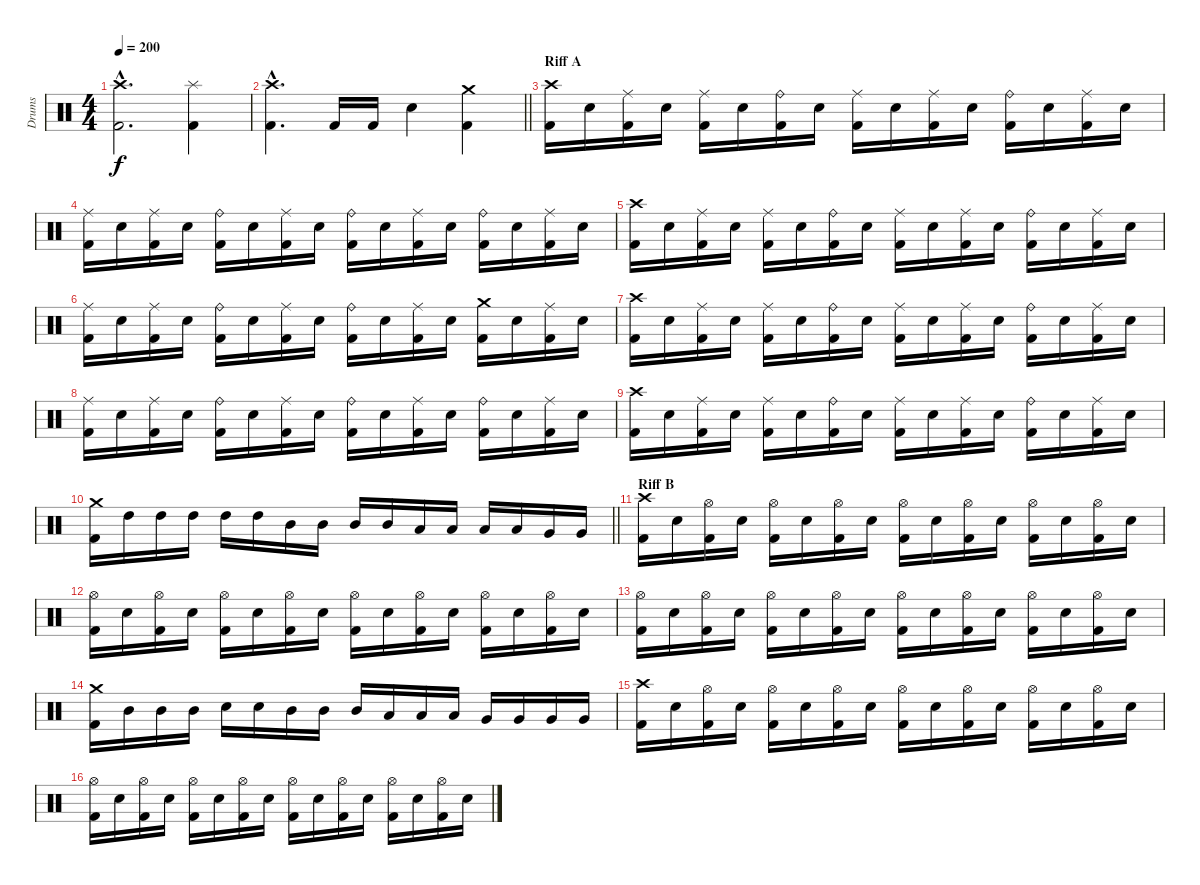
\track ("Drums" "Drums") {instrument percussion}
\staff {score}
\articulation defaults
\ts (4 4)
\tempo 200
\clef neutral
\ks c
("Crash high (hit)"{hac} "Kick (hit) 2"{hac}).2{d dy f} ("Splash (hit)" "Kick (hit) 2").4 |
\barLineRight lightlight
("Crash high (hit)"{hac} "Kick (hit) 2"{hac}).4{d} "Kick (hit) 2".16 "Kick (hit) 2".16 "Electric Snare (hit)".4 ("Crash medium (hit)" "Kick (hit) 2").4 |
\section ("" "Riff A")
("Crash high (hit)" "Kick (hit) 2").16 "Electric Snare (hit)".16 ("Ride (middle)" "Kick (hit) 2").16 "Electric Snare (hit)".16 ("Ride (middle)" "Kick (hit) 2").16 "Electric Snare (hit)".16 ("Ride (bell)" "Kick (hit) 2").16 "Electric Snare (hit)".16 ("Ride (middle)" "Kick (hit) 2").16 "Electric Snare (hit)".16 ("Ride (middle)" "Kick (hit) 2").16 "Electric Snare (hit)".16 ("Ride (bell)" "Kick (hit) 2").16 "Electric Snare (hit)".16 ("Ride (middle)" "Kick (hit) 2").16 "Electric Snare (hit)".16 |
("Ride (middle)" "Kick (hit) 2").16 "Electric Snare (hit)".16 ("Ride (middle)" "Kick (hit) 2").16 "Electric Snare (hit)".16 ("Ride (bell)" "Kick (hit) 2").16 "Electric Snare (hit)".16 ("Ride (middle)" "Kick (hit) 2").16 "Electric Snare (hit)".16 ("Ride (bell)" "Kick (hit) 2").16 "Electric Snare (hit)".16 ("Ride (middle)" "Kick (hit) 2").16 "Electric Snare (hit)".16 ("Ride (bell)" "Kick (hit) 2").16 "Electric Snare (hit)".16 ("Ride (middle)" "Kick (hit) 2").16 "Electric Snare (hit)".16 |
("Crash high (hit)" "Kick (hit) 2").16 "Electric Snare (hit)".16 ("Ride (middle)" "Kick (hit) 2").16 "Electric Snare (hit)".16 ("Ride (middle)" "Kick (hit) 2").16 "Electric Snare (hit)".16 ("Ride (bell)" "Kick (hit) 2").16 "Electric Snare (hit)".16 ("Ride (middle)" "Kick (hit) 2").16 "Electric Snare (hit)".16 ("Ride (middle)" "Kick (hit) 2").16 "Electric Snare (hit)".16 ("Ride (bell)" "Kick (hit) 2").16 "Electric Snare (hit)".16 ("Ride (middle)" "Kick (hit) 2").16 "Electric Snare (hit)".16 |
("Ride (middle)" "Kick (hit) 2").16 "Electric Snare (hit)".16 ("Ride (middle)" "Kick (hit) 2").16 "Electric Snare (hit)".16 ("Ride (bell)" "Kick (hit) 2").16 "Electric Snare (hit)".16 ("Ride (middle)" "Kick (hit) 2").16 "Electric Snare (hit)".16 ("Ride (bell)" "Kick (hit) 2").16 "Electric Snare (hit)".16 ("Ride (middle)" "Kick (hit) 2").16 "Electric Snare (hit)".16 ("Crash medium (hit)" "Kick (hit) 2").16 "Electric Snare (hit)".16 ("Ride (middle)" "Kick (hit) 2").16 "Electric Snare (hit)".16 |
("Crash high (hit)" "Kick (hit) 2").16 "Electric Snare (hit)".16 ("Ride (middle)" "Kick (hit) 2").16 "Electric Snare (hit)".16 ("Ride (middle)" "Kick (hit) 2").16 "Electric Snare (hit)".16 ("Ride (bell)" "Kick (hit) 2").16 "Electric Snare (hit)".16 ("Ride (middle)" "Kick (hit) 2").16 "Electric Snare (hit)".16 ("Ride (middle)" "Kick (hit) 2").16 "Electric Snare (hit)".16 ("Ride (bell)" "Kick (hit) 2").16 "Electric Snare (hit)".16 ("Ride (middle)" "Kick (hit) 2").16 "Electric Snare (hit)".16 |
("Ride (middle)" "Kick (hit) 2").16 "Electric Snare (hit)".16 ("Ride (middle)" "Kick (hit) 2").16 "Electric Snare (hit)".16 ("Ride (bell)" "Kick (hit) 2").16 "Electric Snare (hit)".16 ("Ride (middle)" "Kick (hit) 2").16 "Electric Snare (hit)".16 ("Ride (bell)" "Kick (hit) 2").16 "Electric Snare (hit)".16 ("Ride (middle)" "Kick (hit) 2").16 "Electric Snare (hit)".16 ("Ride (bell)" "Kick (hit) 2").16 "Electric Snare (hit)".16 ("Ride (middle)" "Kick (hit) 2").16 "Electric Snare (hit)".16 |
("Crash high (hit)" "Kick (hit) 2").16 "Electric Snare (hit)".16 ("Ride (middle)" "Kick (hit) 2").16 "Electric Snare (hit)".16 ("Ride (middle)" "Kick (hit) 2").16 "Electric Snare (hit)".16 ("Ride (bell)" "Kick (hit) 2").16 "Electric Snare (hit)".16 ("Ride (middle)" "Kick (hit) 2").16 "Electric Snare (hit)".16 ("Ride (middle)" "Kick (hit) 2").16 "Electric Snare (hit)".16 ("Ride (bell)" "Kick (hit) 2").16 "Electric Snare (hit)".16 ("Ride (middle)" "Kick (hit) 2").16 "Electric Snare (hit)".16 |
\barLineRight lightlight
("Crash medium (hit)" "Kick (hit) 2").16 "High Tom (hit)".16 "High Tom (hit)".16 "High Tom (hit)".16 "High Tom (hit)".16 "High Tom (hit)".16 "Mid Tom (hit)".16 "Mid Tom (hit)".16 "Mid Tom (hit)".16 "Mid Tom (hit)".16 "Low Tom (hit)".16 "Low Tom (hit)".16 "Low Tom (hit)".16 "Low Tom (hit)".16 "Very Low Tom (hit)".16 "Very Low Tom (hit)".16 |
\section ("" "Riff B")
("Crash high (hit)" "Kick (hit) 2").16 "Electric Snare (hit)".16 ("Hi-Hat (open)" "Kick (hit) 2").16 "Electric Snare (hit)".16 ("Hi-Hat (open)" "Kick (hit) 2").16 "Electric Snare (hit)".16 ("Hi-Hat (open)" "Kick (hit) 2").16 "Electric Snare (hit)".16 ("Hi-Hat (open)" "Kick (hit) 2").16 "Electric Snare (hit)".16 ("Hi-Hat (open)" "Kick (hit) 2").16 "Electric Snare (hit)".16 ("Hi-Hat (open)" "Kick (hit) 2").16 "Electric Snare (hit)".16 ("Hi-Hat (open)" "Kick (hit) 2").16 "Electric Snare (hit)".16 |
("Hi-Hat (open)" "Kick (hit) 2").16 "Electric Snare (hit)".16 ("Hi-Hat (open)" "Kick (hit) 2").16 "Electric Snare (hit)".16 ("Hi-Hat (open)" "Kick (hit) 2").16 "Electric Snare (hit)".16 ("Hi-Hat (open)" "Kick (hit) 2").16 "Electric Snare (hit)".16 ("Hi-Hat (open)" "Kick (hit) 2").16 "Electric Snare (hit)".16 ("Hi-Hat (open)" "Kick (hit) 2").16 "Electric Snare (hit)".16 ("Hi-Hat (open)" "Kick (hit) 2").16 "Electric Snare (hit)".16 ("Hi-Hat (open)" "Kick (hit) 2").16 "Electric Snare (hit)".16 |
("Hi-Hat (open)" "Kick (hit) 2").16 "Electric Snare (hit)".16 ("Hi-Hat (open)" "Kick (hit) 2").16 "Electric Snare (hit)".16 ("Hi-Hat (open)" "Kick (hit) 2").16 "Electric Snare (hit)".16 ("Hi-Hat (open)" "Kick (hit) 2").16 "Electric Snare (hit)".16 ("Hi-Hat (open)" "Kick (hit) 2").16 "Electric Snare (hit)".16 ("Hi-Hat (open)" "Kick (hit) 2").16 "Electric Snare (hit)".16 ("Hi-Hat (open)" "Kick (hit) 2").16 "Electric Snare (hit)".16 ("Hi-Hat (open)" "Kick (hit) 2").16 "Electric Snare (hit)".16 |
("Crash medium (hit)" "Kick (hit) 2").16 "Mid Tom (hit)".16 "Mid Tom (hit)".16 "Mid Tom (hit)".16 "Electric Snare (hit)".16 "Electric Snare (hit)".16 "Mid Tom (hit)".16 "Mid Tom (hit)".16 "Mid Tom (hit)".16 "Low Tom (hit)".16 "Low Tom (hit)".16 "Low Tom (hit)".16 "Very Low Tom (hit)".16 "Very Low Tom (hit)".16 "Very Low Tom (hit)".16 "Very Low Tom (hit)".16 |
("Crash high (hit)" "Kick (hit) 2").16 "Electric Snare (hit)".16 ("Hi-Hat (open)" "Kick (hit) 2").16 "Electric Snare (hit)".16 ("Hi-Hat (open)" "Kick (hit) 2").16 "Electric Snare (hit)".16 ("Hi-Hat (open)" "Kick (hit) 2").16 "Electric Snare (hit)".16 ("Hi-Hat (open)" "Kick (hit) 2").16 "Electric Snare (hit)".16 ("Hi-Hat (open)" "Kick (hit) 2").16 "Electric Snare (hit)".16 ("Hi-Hat (open)" "Kick (hit) 2").16 "Electric Snare (hit)".16 ("Hi-Hat (open)" "Kick (hit) 2").16 "Electric Snare (hit)".16 |
("Hi-Hat (open)" "Kick (hit) 2").16 "Electric Snare (hit)".16 ("Hi-Hat (open)" "Kick (hit) 2").16 "Electric Snare (hit)".16 ("Hi-Hat (open)" "Kick (hit) 2").16 "Electric Snare (hit)".16 ("Hi-Hat (open)" "Kick (hit) 2").16 "Electric Snare (hit)".16 ("Hi-Hat (open)" "Kick (hit) 2").16 "Electric Snare (hit)".16 ("Hi-Hat (open)" "Kick (hit) 2").16 "Electric Snare (hit)".16 ("Hi-Hat (open)" "Kick (hit) 2").16 "Electric Snare (hit)".16 ("Hi-Hat (open)" "Kick (hit) 2").16 "Electric Snare (hit)".16
